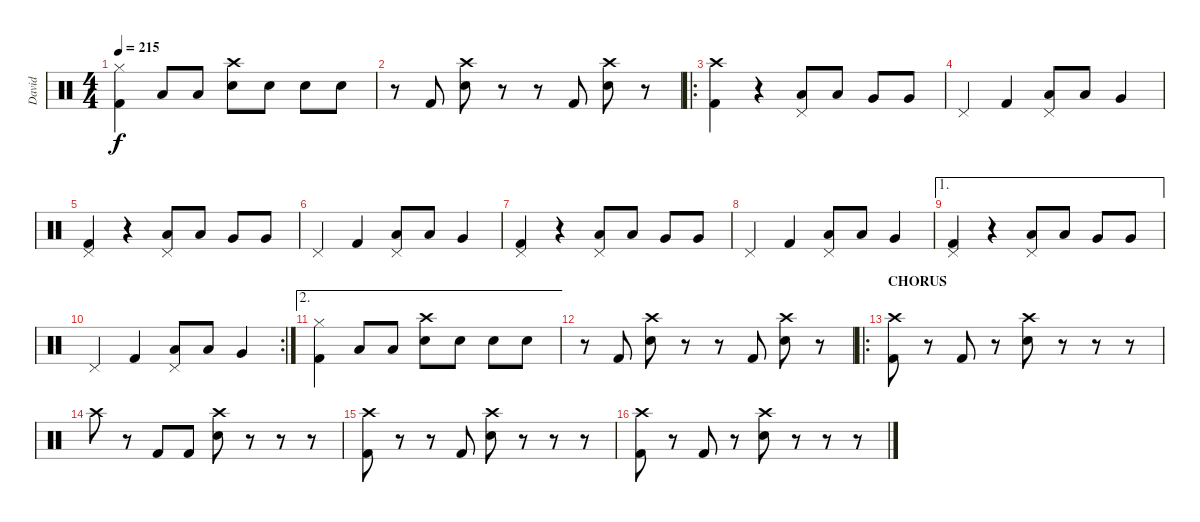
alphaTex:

\track ("David" "David") {instrument percussion}
\staff {score}
\articulation defaults
\ts (4 4)
\tempo 215
\clef neutral
\ks c
("Hi-Hat (closed)" "Kick (hit) 2").4{dy f} "Low Tom (hit)".8 "Low Tom (hit)".8 ("Crash high (hit)" "Electric Snare (hit)").8 "Electric Snare (hit)".8 "Electric Snare (hit)".8 "Electric Snare (hit)".8 |
r.8 "Kick (hit) 2".8 ("Crash high (hit)" "Electric Snare (hit)").8 r.8 r.8 "Kick (hit) 2".8 ("Crash high (hit)" "Electric Snare (hit)").8 r.8 |
\ro
("Crash high (hit)" "Kick (hit) 2").4 r.4 ("Pedal Hi-Hat (hit)" "Low Tom (hit)").8 "Low Tom (hit)".8 "Very Low Tom (hit)".8 "Very Low Tom (hit)".8 |
"Pedal Hi-Hat (hit)".4 "Kick (hit) 2".4 ("Pedal Hi-Hat (hit)" "Low Tom (hit)").8 "Low Tom (hit)".8 "Very Low Tom (hit)".4 |
("Pedal Hi-Hat (hit)" "Kick (hit) 2").4 r.4 ("Pedal Hi-Hat (hit)" "Low Tom (hit)").8 "Low Tom (hit)".8 "Very Low Tom (hit)".8 "Very Low Tom (hit)".8 |
"Pedal Hi-Hat (hit)".4 "Kick (hit) 2".4 ("Pedal Hi-Hat (hit)" "Low Tom (hit)").8 "Low Tom (hit)".8 "Very Low Tom (hit)".4 |
("Pedal Hi-Hat (hit)" "Kick (hit) 2").4 r.4 ("Pedal Hi-Hat (hit)" "Low Tom (hit)").8 "Low Tom (hit)".8 "Very Low Tom (hit)".8 "Very Low Tom (hit)".8 |
"Pedal Hi-Hat (hit)".4 "Kick (hit) 2".4 ("Pedal Hi-Hat (hit)" "Low Tom (hit)").8 "Low Tom (hit)".8 "Very Low Tom (hit)".4 |
\ae 1
("Pedal Hi-Hat (hit)" "Kick (hit) 2").4 r.4 ("Pedal Hi-Hat (hit)" "Low Tom (hit)").8 "Low Tom (hit)".8 "Very Low Tom (hit)".8 "Very Low Tom (hit)".8 |
\rc 2 "Pedal Hi-Hat (hit)".4 "Kick (hit) 2".4
("Pedal Hi-Hat (hit)" "Low Tom (hit)").8 "Low Tom (hit)".8 "Very Low Tom (hit)".4 |
\ae 2
("Hi-Hat (closed)" "Kick (hit) 2").4 "Low Tom (hit)".8 "Low Tom (hit)".8 ("Crash high (hit)" "Electric Snare (hit)").8 "Electric Snare (hit)".8 "Electric Snare (hit)".8 "Electric Snare (hit)".8 |
r.8 "Kick (hit) 2".8 ("Crash high (hit)" "Electric Snare (hit)").8 r.8 r.8 "Kick (hit) 2".8 ("Crash high (hit)" "Electric Snare (hit)").8 r.8 |
\ro
\section ("" "CHORUS")
("Crash high (hit)" "Kick (hit) 2").8 r.8 "Kick (hit) 2".8 r.8 ("Crash high (hit)" "Electric Snare (hit)").8 r.8 r.8 r.8 |
"Crash high (hit)".8 r.8 "Kick (hit) 2".8 "Kick (hit) 2".8 ("Crash high (hit)" "Electric Snare (hit)").8 r.8 r.8 r.8 |
("Crash high (hit)" "Kick (hit) 2").8 r.8 r.8 "Kick (hit) 2".8 ("Crash high (hit)" "Electric Snare (hit)").8 r.8 r.8 r.8 |
("Crash high (hit)" "Kick (hit) 2").8 r.8 "Kick (hit) 2".8 r.8 ("Crash high (hit)" "Electric Snare (hit)").8 r.8 r.8 r.8
